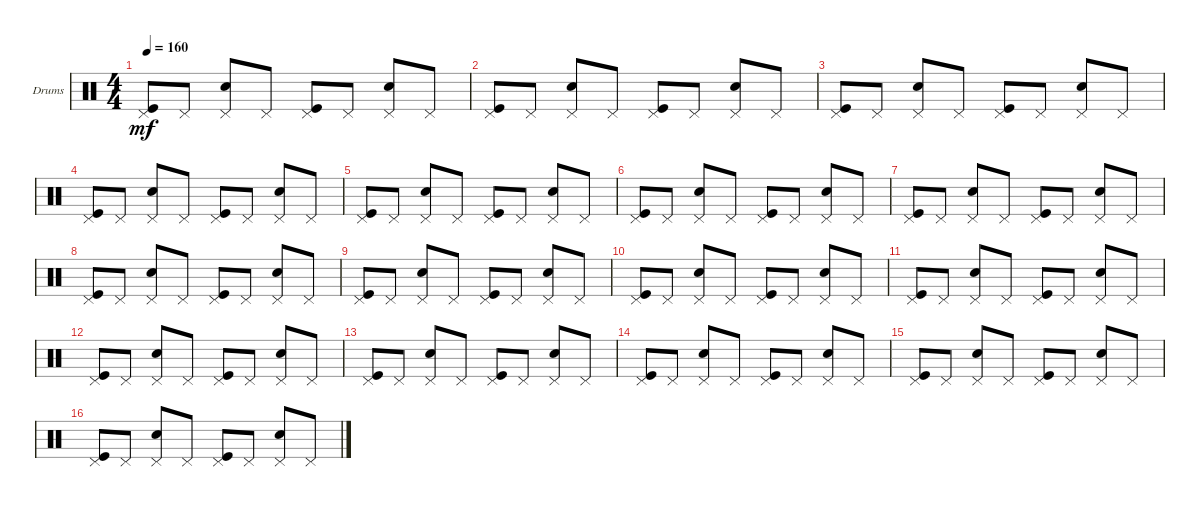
\defaultSystemsLayout 4
\bracketExtendMode groupsimilarinstruments
\firstSystemTrackNameOrientation horizontal
\otherSystemsTrackNameOrientation horizontal
\track ("Drums" "Drums") {instrument percussion}
\staff {score}
\articulation defaults
\ts (4 4)
\tempo 160
\clef neutral
\ks c
("Pedal Hi-Hat (hit)" "Kick (hit)").8{dy mf} "Pedal Hi-Hat (hit)".8 ("Pedal Hi-Hat (hit)" "Snare (hit) 2").8 "Pedal Hi-Hat (hit)".8 ("Pedal Hi-Hat (hit)" "Kick (hit)").8 "Pedal Hi-Hat (hit)".8 ("Pedal Hi-Hat (hit)" "Snare (hit) 2").8 "Pedal Hi-Hat (hit)".8 |
("Pedal Hi-Hat (hit)" "Kick (hit)").8 "Pedal Hi-Hat (hit)".8 ("Pedal Hi-Hat (hit)" "Snare (hit) 2").8 "Pedal Hi-Hat (hit)".8 ("Pedal Hi-Hat (hit)" "Kick (hit)").8 "Pedal Hi-Hat (hit)".8 ("Pedal Hi-Hat (hit)" "Snare (hit) 2").8 "Pedal Hi-Hat (hit)".8 |
("Pedal Hi-Hat (hit)" "Kick (hit)").8 "Pedal Hi-Hat (hit)".8 ("Pedal Hi-Hat (hit)" "Snare (hit) 2").8 "Pedal Hi-Hat (hit)".8 ("Pedal Hi-Hat (hit)" "Kick (hit)").8 "Pedal Hi-Hat (hit)".8 ("Pedal Hi-Hat (hit)" "Snare (hit) 2").8 "Pedal Hi-Hat (hit)".8 |
("Pedal Hi-Hat (hit)" "Kick (hit)").8 "Pedal Hi-Hat (hit)".8 ("Pedal Hi-Hat (hit)" "Snare (hit) 2").8 "Pedal Hi-Hat (hit)".8 ("Pedal Hi-Hat (hit)" "Kick (hit)").8 "Pedal Hi-Hat (hit)".8 ("Pedal Hi-Hat (hit)" "Snare (hit) 2").8 "Pedal Hi-Hat (hit)".8 |
("Pedal Hi-Hat (hit)" "Kick (hit)").8 "Pedal Hi-Hat (hit)".8 ("Pedal Hi-Hat (hit)" "Snare (hit) 2").8 "Pedal Hi-Hat (hit)".8 ("Pedal Hi-Hat (hit)" "Kick (hit)").8 "Pedal Hi-Hat (hit)".8 ("Pedal Hi-Hat (hit)" "Snare (hit) 2").8 "Pedal Hi-Hat (hit)".8 |
("Pedal Hi-Hat (hit)" "Kick (hit)").8 "Pedal Hi-Hat (hit)".8 ("Pedal Hi-Hat (hit)" "Snare (hit) 2").8 "Pedal Hi-Hat (hit)".8 ("Pedal Hi-Hat (hit)" "Kick (hit)").8 "Pedal Hi-Hat (hit)".8 ("Pedal Hi-Hat (hit)" "Snare (hit) 2").8 "Pedal Hi-Hat (hit)".8 |
("Pedal Hi-Hat (hit)" "Kick (hit)").8 "Pedal Hi-Hat (hit)".8 ("Pedal Hi-Hat (hit)" "Snare (hit) 2").8 "Pedal Hi-Hat (hit)".8 ("Pedal Hi-Hat (hit)" "Kick (hit)").8 "Pedal Hi-Hat (hit)".8 ("Pedal Hi-Hat (hit)" "Snare (hit) 2").8 "Pedal Hi-Hat (hit)".8 |
("Pedal Hi-Hat (hit)" "Kick (hit)").8 "Pedal Hi-Hat (hit)".8 ("Pedal Hi-Hat (hit)" "Snare (hit) 2").8 "Pedal Hi-Hat (hit)".8 ("Pedal Hi-Hat (hit)" "Kick (hit)").8 "Pedal Hi-Hat (hit)".8 ("Pedal Hi-Hat (hit)" "Snare (hit) 2").8 "Pedal Hi-Hat (hit)".8 |
("Pedal Hi-Hat (hit)" "Kick (hit)").8 "Pedal Hi-Hat (hit)".8 ("Pedal Hi-Hat (hit)" "Snare (hit) 2").8 "Pedal Hi-Hat (hit)".8 ("Pedal Hi-Hat (hit)" "Kick (hit)").8 "Pedal Hi-Hat (hit)".8 ("Pedal Hi-Hat (hit)" "Snare (hit) 2").8 "Pedal Hi-Hat (hit)".8 |
("Pedal Hi-Hat (hit)" "Kick (hit)").8 "Pedal Hi-Hat (hit)".8 ("Pedal Hi-Hat (hit)" "Snare (hit) 2").8 "Pedal Hi-Hat (hit)".8 ("Pedal Hi-Hat (hit)" "Kick (hit)").8 "Pedal Hi-Hat (hit)".8 ("Pedal Hi-Hat (hit)" "Snare (hit) 2").8 "Pedal Hi-Hat (hit)".8 |
("Pedal Hi-Hat (hit)" "Kick (hit)").8 "Pedal Hi-Hat (hit)".8 ("Pedal Hi-Hat (hit)" "Snare (hit) 2").8 "Pedal Hi-Hat (hit)".8 ("Pedal Hi-Hat (hit)" "Kick (hit)").8 "Pedal Hi-Hat (hit)".8 ("Pedal Hi-Hat (hit)" "Snare (hit) 2").8 "Pedal Hi-Hat (hit)".8 |
("Pedal Hi-Hat (hit)" "Kick (hit)").8 "Pedal Hi-Hat (hit)".8 ("Pedal Hi-Hat (hit)" "Snare (hit) 2").8 "Pedal Hi-Hat (hit)".8 ("Pedal Hi-Hat (hit)" "Kick (hit)").8 "Pedal Hi-Hat (hit)".8 ("Pedal Hi-Hat (hit)" "Snare (hit) 2").8 "Pedal Hi-Hat (hit)".8 |
("Pedal Hi-Hat (hit)" "Kick (hit)").8 "Pedal Hi-Hat (hit)".8 ("Pedal Hi-Hat (hit)" "Snare (hit) 2").8 "Pedal Hi-Hat (hit)".8 ("Pedal Hi-Hat (hit)" "Kick (hit)").8 "Pedal Hi-Hat (hit)".8 ("Pedal Hi-Hat (hit)" "Snare (hit) 2").8 "Pedal Hi-Hat (hit)".8 |
("Pedal Hi-Hat (hit)" "Kick (hit)").8 "Pedal Hi-Hat (hit)".8 ("Pedal Hi-Hat (hit)" "Snare (hit) 2").8 "Pedal Hi-Hat (hit)".8 ("Pedal Hi-Hat (hit)" "Kick (hit)").8 "Pedal Hi-Hat (hit)".8 ("Pedal Hi-Hat (hit)" "Snare (hit) 2").8 "Pedal Hi-Hat (hit)".8 |
("Pedal Hi-Hat (hit)" "Kick (hit)").8 "Pedal Hi-Hat (hit)".8 ("Pedal Hi-Hat (hit)" "Snare (hit) 2").8 "Pedal Hi-Hat (hit)".8 ("Pedal Hi-Hat (hit)" "Kick (hit)").8 "Pedal Hi-Hat (hit)".8 ("Pedal Hi-Hat (hit)" "Snare (hit) 2").8 "Pedal Hi-Hat (hit)".8 |
("Pedal Hi-Hat (hit)" "Kick (hit)").8 "Pedal Hi-Hat (hit)".8 ("Pedal Hi-Hat (hit)" "Snare (hit) 2").8 "Pedal Hi-Hat (hit)".8 ("Pedal Hi-Hat (hit)" "Kick (hit)").8 "Pedal Hi-Hat (hit)".8 ("Pedal Hi-Hat (hit)" "Snare (hit) 2").8 "Pedal Hi-Hat (hit)".8
